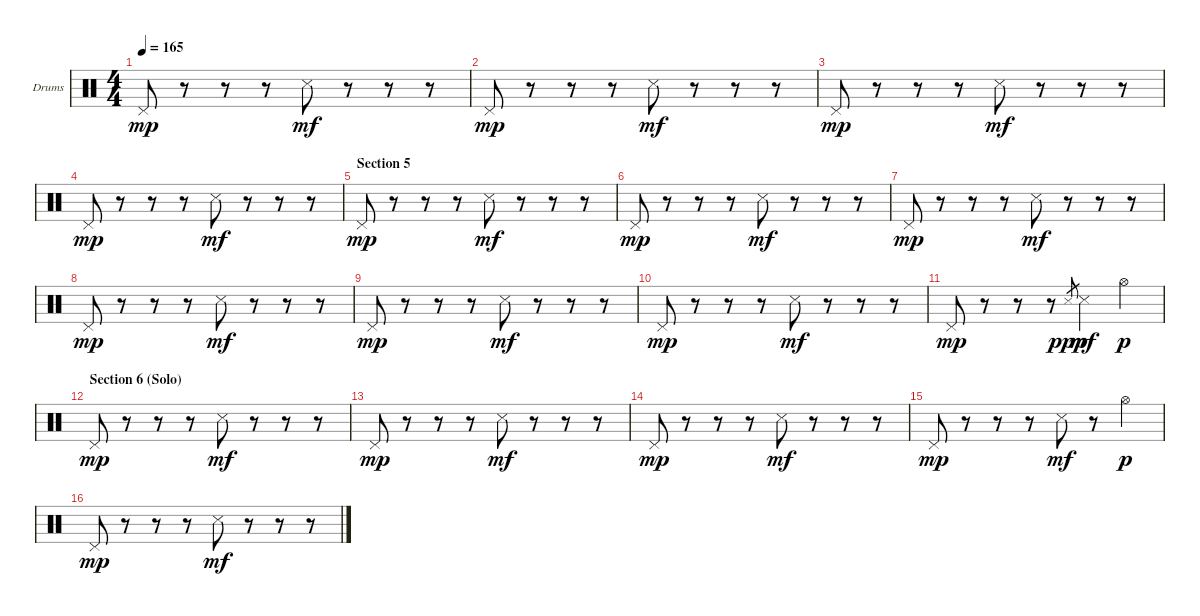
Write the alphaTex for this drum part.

\bracketExtendMode groupsimilarinstruments
\firstSystemTrackNameOrientation horizontal
\otherSystemsTrackNameOrientation horizontal
\track ("Drumkit" "Drums") {instrument percussion}
\staff {score}
\articulation defaults
\ts (4 4)
\tempo 165
\clef neutral
\ks c "Pedal Hi-Hat (hit)".8{dy mp}
r.8 r.8 r.8 "Snare (side stick) 3".8{dy mf} r.8 r.8 r.8 |
"Pedal Hi-Hat (hit)".8{dy mp} r.8 r.8 r.8 "Snare (side stick) 3".8{dy mf} r.8 r.8 r.8 |
"Pedal Hi-Hat (hit)".8{dy mp} r.8 r.8 r.8 "Snare (side stick) 3".8{dy mf} r.8 r.8 r.8 |
"Pedal Hi-Hat (hit)".8{dy mp} r.8 r.8 r.8 "Snare (side stick) 3".8{dy mf} r.8 r.8 r.8 |
\section ("" "Section 5")
"Pedal Hi-Hat (hit)".8{dy mp} r.8 r.8 r.8 "Snare (side stick) 3".8{dy mf} r.8 r.8 r.8 |
"Pedal Hi-Hat (hit)".8{dy mp} r.8 r.8 r.8 "Snare (side stick) 3".8{dy mf} r.8 r.8 r.8 |
"Pedal Hi-Hat (hit)".8{dy mp} r.8 r.8 r.8 "Snare (side stick) 3".8{dy mf} r.8 r.8 r.8 |
"Pedal Hi-Hat (hit)".8{dy mp} r.8 r.8 r.8 "Snare (side stick) 3".8{dy mf} r.8 r.8 r.8 |
"Pedal Hi-Hat (hit)".8{dy mp} r.8 r.8 r.8 "Snare (side stick) 3".8{dy mf} r.8 r.8 r.8 |
"Pedal Hi-Hat (hit)".8{dy mp} r.8 r.8 r.8 "Snare (side stick) 3".8{dy mf} r.8 r.8 r.8 |
"Pedal Hi-Hat (hit)".8{dy mp} r.8 r.8 r.8 "Snare (side stick) 3".8{gr dy ppp} "Snare (side stick) 3".4{dy mf} "Hi-Hat (open)".4{dy p} |
\section ("" "Section 6 (Solo)")
"Pedal Hi-Hat (hit)".8{dy mp} r.8 r.8 r.8 "Snare (side stick) 3".8{dy mf} r.8 r.8 r.8 |
"Pedal Hi-Hat (hit)".8{dy mp} r.8 r.8 r.8 "Snare (side stick) 3".8{dy mf} r.8 r.8 r.8 |
"Pedal Hi-Hat (hit)".8{dy mp} r.8 r.8 r.8 "Snare (side stick) 3".8{dy mf} r.8 r.8 r.8 |
"Pedal Hi-Hat (hit)".8{dy mp} r.8 r.8 r.8 "Snare (side stick) 3".8{dy mf} r.8 "Hi-Hat (open)".4{dy p} |
"Pedal Hi-Hat (hit)".8{dy mp} r.8 r.8 r.8 "Snare (side stick) 3".8{dy mf} r.8 r.8 r.8
